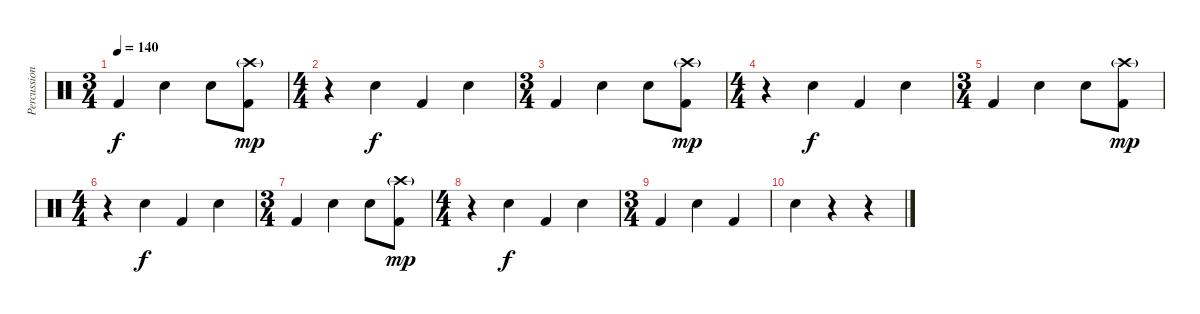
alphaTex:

\track ("Percussion" "Percussion") {instrument percussion}
\staff {score}
\articulation defaults
\ts (3 4)
\tempo 140
\clef neutral
\ks c "Kick (hit) 2".4{dy f} "Snare (hit) 2".4 "Snare (hit) 2".8
("Crash high (hit)"{g} "Kick (hit) 2").8{dy mp} |
\ts (4 4)
r.4 "Snare (hit) 2".4{dy f} "Kick (hit) 2".4 "Snare (hit) 2".4 |
\ts (3 4)
"Kick (hit) 2".4 "Snare (hit) 2".4 "Snare (hit) 2".8 ("Crash high (hit)"{g} "Kick (hit) 2").8{dy mp} |
\ts (4 4)
r.4 "Snare (hit) 2".4{dy f} "Kick (hit) 2".4 "Snare (hit) 2".4 |
\ts (3 4)
"Kick (hit) 2".4 "Snare (hit) 2".4 "Snare (hit) 2".8 ("Crash high (hit)"{g} "Kick (hit) 2").8{dy mp} |
\ts (4 4)
r.4 "Snare (hit) 2".4{dy f} "Kick (hit) 2".4 "Snare (hit) 2".4 |
\ts (3 4)
"Kick (hit) 2".4 "Snare (hit) 2".4 "Snare (hit) 2".8 ("Crash high (hit)"{g} "Kick (hit) 2").8{dy mp} |
\ts (4 4)
r.4 "Snare (hit) 2".4{dy f} "Kick (hit) 2".4 "Snare (hit) 2".4 |
\ts (3 4)
"Kick (hit) 2".4 "Snare (hit) 2".4 "Kick (hit) 2".4 |
"Snare (hit) 2".4 r.4 r.4
